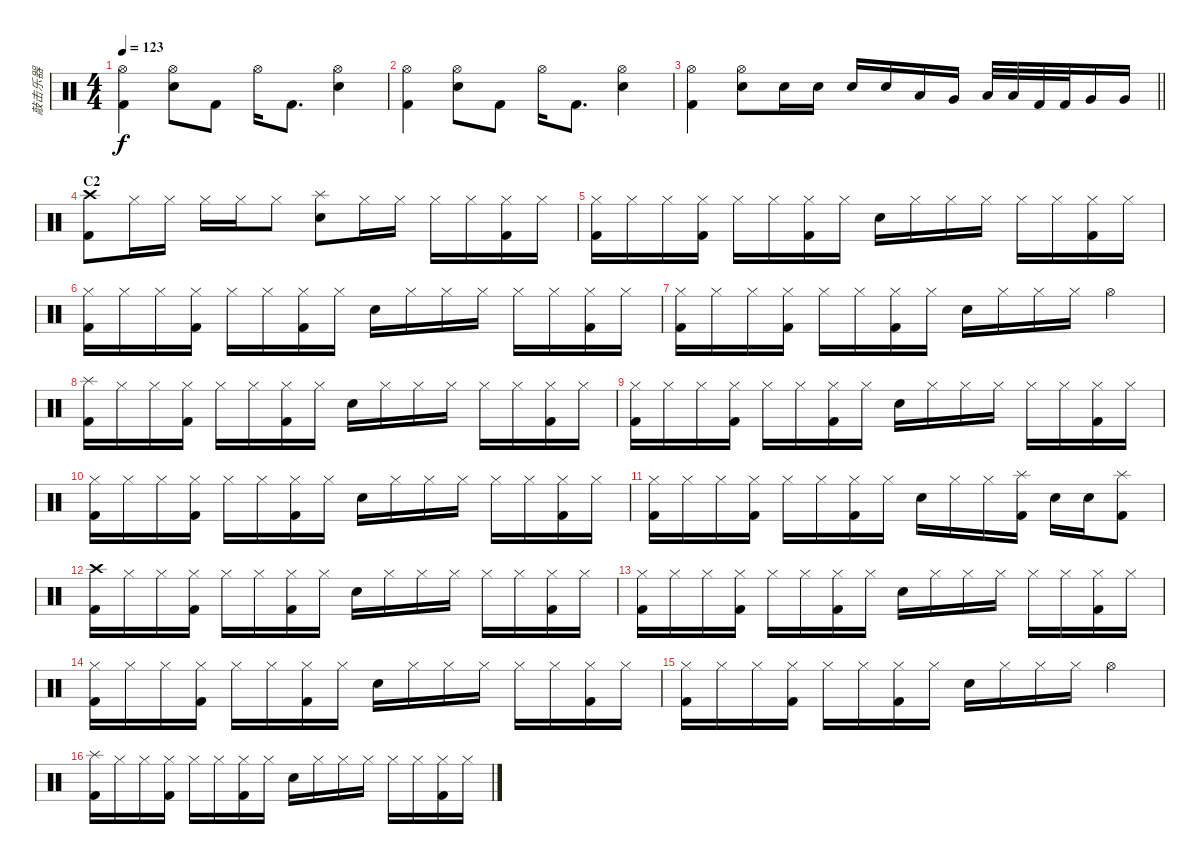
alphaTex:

\track ("敲击乐器" "敲击乐器") {instrument percussion}
\staff {score}
\articulation defaults
\ts (4 4)
\tempo 123
\clef neutral
\ks c
("Hi-Hat (open)" "Kick (hit) 2").4{dy f} ("Hi-Hat (open)" "Electric Snare (hit)").8 "Kick (hit) 2".8 "Hi-Hat (open)".16 "Kick (hit) 2".8{d} ("Hi-Hat (open)" "Electric Snare (hit)").4 |
("Hi-Hat (open)" "Kick (hit) 2").4 ("Hi-Hat (open)" "Electric Snare (hit)").8 "Kick (hit) 2".8 "Hi-Hat (open)".16 "Kick (hit) 2".8{d} ("Hi-Hat (open)" "Electric Snare (hit)").4 |
\barLineRight lightlight
("Hi-Hat (open)" "Kick (hit) 2").4 ("Hi-Hat (open)" "Electric Snare (hit)").8 "Electric Snare (hit)".16 "Electric Snare (hit)".16 "Electric Snare (hit)".16 "Electric Snare (hit)".16 "Low Tom (hit)".16 "Very Low Tom (hit)".16 "Low Tom (hit)".32 "Low Tom (hit)".32 "Kick (hit) 2".32 "Kick (hit) 2".32 "Very Low Tom (hit)".16 "Very Low Tom (hit)".16 |
\section ("" "C2")
("Crash high (hit)" "Kick (hit) 2").8 "Hi-Hat (closed)".16 "Hi-Hat (closed)".16 "Hi-Hat (closed)".16 "Hi-Hat (closed)".16 "Hi-Hat (closed)".8 ("Splash (hit)" "Electric Snare (hit)").8 "Hi-Hat (closed)".16 "Hi-Hat (closed)".16 "Hi-Hat (closed)".16 "Hi-Hat (closed)".16 ("Hi-Hat (closed)" "Kick (hit) 2").16 "Hi-Hat (closed)".16 |
("Hi-Hat (closed)" "Kick (hit) 2").16 "Hi-Hat (closed)".16 "Hi-Hat (closed)".16 ("Hi-Hat (closed)" "Kick (hit) 2").16 "Hi-Hat (closed)".16 "Hi-Hat (closed)".16 ("Hi-Hat (closed)" "Kick (hit) 2").16 "Hi-Hat (closed)".16 "Electric Snare (hit)".16 "Hi-Hat (closed)".16 "Hi-Hat (closed)".16 "Hi-Hat (closed)".16 "Hi-Hat (closed)".16 "Hi-Hat (closed)".16 ("Hi-Hat (closed)" "Kick (hit) 2").16 "Hi-Hat (closed)".16 |
("Hi-Hat (closed)" "Kick (hit) 2").16 "Hi-Hat (closed)".16 "Hi-Hat (closed)".16 ("Hi-Hat (closed)" "Kick (hit) 2").16 "Hi-Hat (closed)".16 "Hi-Hat (closed)".16 ("Hi-Hat (closed)" "Kick (hit) 2").16 "Hi-Hat (closed)".16 "Electric Snare (hit)".16 "Hi-Hat (closed)".16 "Hi-Hat (closed)".16 "Hi-Hat (closed)".16 "Hi-Hat (closed)".16 "Hi-Hat (closed)".16 ("Hi-Hat (closed)" "Kick (hit) 2").16 "Hi-Hat (closed)".16 |
("Hi-Hat (closed)" "Kick (hit) 2").16 "Hi-Hat (closed)".16 "Hi-Hat (closed)".16 ("Hi-Hat (closed)" "Kick (hit) 2").16 "Hi-Hat (closed)".16 "Hi-Hat (closed)".16 ("Hi-Hat (closed)" "Kick (hit) 2").16 "Hi-Hat (closed)".16 "Electric Snare (hit)".16 "Hi-Hat (closed)".16 "Hi-Hat (closed)".16 "Hi-Hat (closed)".16 "Hi-Hat (open)".4 |
("Splash (hit)" "Kick (hit) 2").16 "Hi-Hat (closed)".16 "Hi-Hat (closed)".16 ("Hi-Hat (closed)" "Kick (hit) 2").16 "Hi-Hat (closed)".16 "Hi-Hat (closed)".16 ("Hi-Hat (closed)" "Kick (hit) 2").16 "Hi-Hat (closed)".16 "Electric Snare (hit)".16 "Hi-Hat (closed)".16 "Hi-Hat (closed)".16 "Hi-Hat (closed)".16 "Hi-Hat (closed)".16 "Hi-Hat (closed)".16 ("Hi-Hat (closed)" "Kick (hit) 2").16 "Hi-Hat (closed)".16 |
("Hi-Hat (closed)" "Kick (hit) 2").16 "Hi-Hat (closed)".16 "Hi-Hat (closed)".16 ("Hi-Hat (closed)" "Kick (hit) 2").16 "Hi-Hat (closed)".16 "Hi-Hat (closed)".16 ("Hi-Hat (closed)" "Kick (hit) 2").16 "Hi-Hat (closed)".16 "Electric Snare (hit)".16 "Hi-Hat (closed)".16 "Hi-Hat (closed)".16 "Hi-Hat (closed)".16 "Hi-Hat (closed)".16 "Hi-Hat (closed)".16 ("Hi-Hat (closed)" "Kick (hit) 2").16 "Hi-Hat (closed)".16 |
("Hi-Hat (closed)" "Kick (hit) 2").16 "Hi-Hat (closed)".16 "Hi-Hat (closed)".16 ("Hi-Hat (closed)" "Kick (hit) 2").16 "Hi-Hat (closed)".16 "Hi-Hat (closed)".16 ("Hi-Hat (closed)" "Kick (hit) 2").16 "Hi-Hat (closed)".16 "Electric Snare (hit)".16 "Hi-Hat (closed)".16 "Hi-Hat (closed)".16 "Hi-Hat (closed)".16 "Hi-Hat (closed)".16 "Hi-Hat (closed)".16 ("Hi-Hat (closed)" "Kick (hit) 2").16 "Hi-Hat (closed)".16 |
("Hi-Hat (closed)" "Kick (hit) 2").16 "Hi-Hat (closed)".16 "Hi-Hat (closed)".16 ("Hi-Hat (closed)" "Kick (hit) 2").16 "Hi-Hat (closed)".16 "Hi-Hat (closed)".16 ("Hi-Hat (closed)" "Kick (hit) 2").16 "Hi-Hat (closed)".16 "Electric Snare (hit)".16 "Hi-Hat (closed)".16 "Hi-Hat (closed)".16 ("Splash (hit)" "Kick (hit) 2").16 "Electric Snare (hit)".16 "Electric Snare (hit)".16 ("Splash (hit)" "Kick (hit) 2").8 |
("Crash high (hit)" "Kick (hit) 2").16 "Hi-Hat (closed)".16 "Hi-Hat (closed)".16 ("Hi-Hat (closed)" "Kick (hit) 2").16 "Hi-Hat (closed)".16 "Hi-Hat (closed)".16 ("Hi-Hat (closed)" "Kick (hit) 2").16 "Hi-Hat (closed)".16 "Electric Snare (hit)".16 "Hi-Hat (closed)".16 "Hi-Hat (closed)".16 "Hi-Hat (closed)".16 "Hi-Hat (closed)".16 "Hi-Hat (closed)".16 ("Hi-Hat (closed)" "Kick (hit) 2").16 "Hi-Hat (closed)".16 |
("Hi-Hat (closed)" "Kick (hit) 2").16 "Hi-Hat (closed)".16 "Hi-Hat (closed)".16 ("Hi-Hat (closed)" "Kick (hit) 2").16 "Hi-Hat (closed)".16 "Hi-Hat (closed)".16 ("Hi-Hat (closed)" "Kick (hit) 2").16 "Hi-Hat (closed)".16 "Electric Snare (hit)".16 "Hi-Hat (closed)".16 "Hi-Hat (closed)".16 "Hi-Hat (closed)".16 "Hi-Hat (closed)".16 "Hi-Hat (closed)".16 ("Hi-Hat (closed)" "Kick (hit) 2").16 "Hi-Hat (closed)".16 |
("Hi-Hat (closed)" "Kick (hit) 2").16 "Hi-Hat (closed)".16 "Hi-Hat (closed)".16 ("Hi-Hat (closed)" "Kick (hit) 2").16 "Hi-Hat (closed)".16 "Hi-Hat (closed)".16 ("Hi-Hat (closed)" "Kick (hit) 2").16 "Hi-Hat (closed)".16 "Electric Snare (hit)".16 "Hi-Hat (closed)".16 "Hi-Hat (closed)".16 "Hi-Hat (closed)".16 "Hi-Hat (closed)".16 "Hi-Hat (closed)".16 ("Hi-Hat (closed)" "Kick (hit) 2").16 "Hi-Hat (closed)".16 |
("Hi-Hat (closed)" "Kick (hit) 2").16 "Hi-Hat (closed)".16 "Hi-Hat (closed)".16 ("Hi-Hat (closed)" "Kick (hit) 2").16 "Hi-Hat (closed)".16 "Hi-Hat (closed)".16 ("Hi-Hat (closed)" "Kick (hit) 2").16 "Hi-Hat (closed)".16 "Electric Snare (hit)".16 "Hi-Hat (closed)".16 "Hi-Hat (closed)".16 "Hi-Hat (closed)".16 "Hi-Hat (open)".4 |
("Splash (hit)" "Kick (hit) 2").16 "Hi-Hat (closed)".16 "Hi-Hat (closed)".16 ("Hi-Hat (closed)" "Kick (hit) 2").16 "Hi-Hat (closed)".16 "Hi-Hat (closed)".16 ("Hi-Hat (closed)" "Kick (hit) 2").16 "Hi-Hat (closed)".16 "Electric Snare (hit)".16 "Hi-Hat (closed)".16 "Hi-Hat (closed)".16 "Hi-Hat (closed)".16 "Hi-Hat (closed)".16 "Hi-Hat (closed)".16 ("Hi-Hat (closed)" "Kick (hit) 2").16 "Hi-Hat (closed)".16
